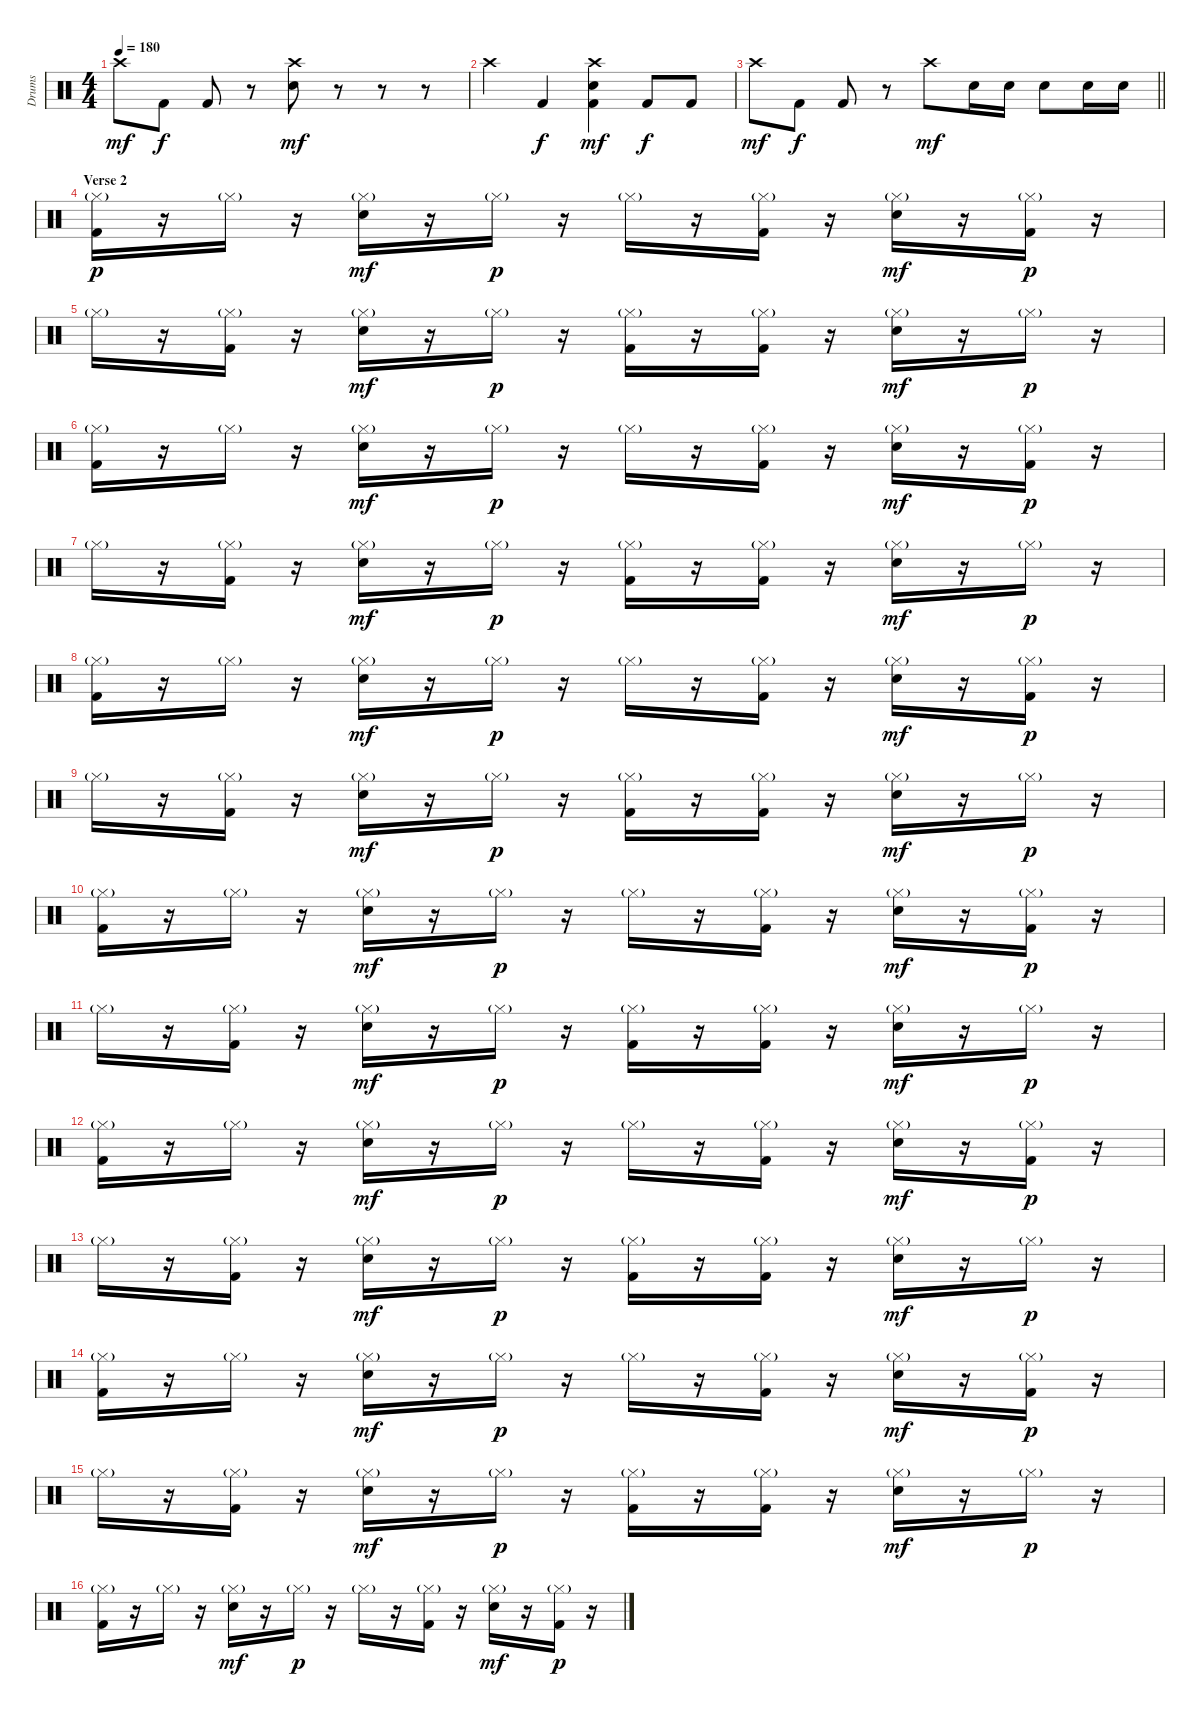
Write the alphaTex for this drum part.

\track ("Drums" "Drums") {instrument percussion}
\staff {score}
\articulation defaults
\ts (4 4)
\tempo 180
\clef neutral
\ks c "Crash high (hit)".8{dy mf} "Kick (hit) 2".8{dy f} "Kick (hit) 2".8
r.8 ("Crash high (hit)" "Electric Snare (hit)").8{dy mf} r.8 r.8 r.8 |
"Crash high (hit)".4 "Kick (hit) 2".4{dy f} ("Crash high (hit)" "Electric Snare (hit)" "Kick (hit) 2").4{dy mf} "Kick (hit) 2".8{dy f} "Kick (hit) 2".8 |
\barLineRight lightlight "Crash high (hit)".8{dy mf} "Kick (hit) 2".8{dy f} "Kick (hit) 2".8
r.8 "Crash high (hit)".8{dy mf} "Electric Snare (hit)".16 "Electric Snare (hit)".16 "Electric Snare (hit)".8 "Electric Snare (hit)".16 "Electric Snare (hit)".16 |
\section ("" "Verse 2")
("Hi-Hat (closed)"{g} "Kick (hit) 2").16{dy p} r.16 "Hi-Hat (closed)"{g}.16 r.16 ("Hi-Hat (closed)"{g} "Electric Snare (hit)").16{dy mf} r.16 "Hi-Hat (closed)"{g}.16{dy p} r.16 "Hi-Hat (closed)"{g}.16 r.16 ("Hi-Hat (closed)"{g} "Kick (hit) 2").16 r.16 ("Hi-Hat (closed)"{g} "Electric Snare (hit)").16{dy mf} r.16 ("Hi-Hat (closed)"{g} "Kick (hit) 2").16{dy p} r.16 |
"Hi-Hat (closed)"{g}.16 r.16 ("Hi-Hat (closed)"{g} "Kick (hit) 2").16 r.16 ("Hi-Hat (closed)"{g} "Electric Snare (hit)").16{dy mf} r.16 "Hi-Hat (closed)"{g}.16{dy p} r.16 ("Hi-Hat (closed)"{g} "Kick (hit) 2").16 r.16 ("Hi-Hat (closed)"{g} "Kick (hit) 2").16 r.16 ("Hi-Hat (closed)"{g} "Electric Snare (hit)").16{dy mf} r.16 "Hi-Hat (closed)"{g}.16{dy p} r.16 |
("Hi-Hat (closed)"{g} "Kick (hit) 2").16 r.16 "Hi-Hat (closed)"{g}.16 r.16 ("Hi-Hat (closed)"{g} "Electric Snare (hit)").16{dy mf} r.16 "Hi-Hat (closed)"{g}.16{dy p} r.16 "Hi-Hat (closed)"{g}.16 r.16 ("Hi-Hat (closed)"{g} "Kick (hit) 2").16 r.16 ("Hi-Hat (closed)"{g} "Electric Snare (hit)").16{dy mf} r.16 ("Hi-Hat (closed)"{g} "Kick (hit) 2").16{dy p} r.16 |
"Hi-Hat (closed)"{g}.16 r.16 ("Hi-Hat (closed)"{g} "Kick (hit) 2").16 r.16 ("Hi-Hat (closed)"{g} "Electric Snare (hit)").16{dy mf} r.16 "Hi-Hat (closed)"{g}.16{dy p} r.16 ("Hi-Hat (closed)"{g} "Kick (hit) 2").16 r.16 ("Hi-Hat (closed)"{g} "Kick (hit) 2").16 r.16 ("Hi-Hat (closed)"{g} "Electric Snare (hit)").16{dy mf} r.16 "Hi-Hat (closed)"{g}.16{dy p} r.16 |
("Hi-Hat (closed)"{g} "Kick (hit) 2").16 r.16 "Hi-Hat (closed)"{g}.16 r.16 ("Hi-Hat (closed)"{g} "Electric Snare (hit)").16{dy mf} r.16 "Hi-Hat (closed)"{g}.16{dy p} r.16 "Hi-Hat (closed)"{g}.16 r.16 ("Hi-Hat (closed)"{g} "Kick (hit) 2").16 r.16 ("Hi-Hat (closed)"{g} "Electric Snare (hit)").16{dy mf} r.16 ("Hi-Hat (closed)"{g} "Kick (hit) 2").16{dy p} r.16 |
"Hi-Hat (closed)"{g}.16 r.16 ("Hi-Hat (closed)"{g} "Kick (hit) 2").16 r.16 ("Hi-Hat (closed)"{g} "Electric Snare (hit)").16{dy mf} r.16 "Hi-Hat (closed)"{g}.16{dy p} r.16 ("Hi-Hat (closed)"{g} "Kick (hit) 2").16 r.16 ("Hi-Hat (closed)"{g} "Kick (hit) 2").16 r.16 ("Hi-Hat (closed)"{g} "Electric Snare (hit)").16{dy mf} r.16 "Hi-Hat (closed)"{g}.16{dy p} r.16 |
("Hi-Hat (closed)"{g} "Kick (hit) 2").16 r.16 "Hi-Hat (closed)"{g}.16 r.16 ("Hi-Hat (closed)"{g} "Electric Snare (hit)").16{dy mf} r.16 "Hi-Hat (closed)"{g}.16{dy p} r.16 "Hi-Hat (closed)"{g}.16 r.16 ("Hi-Hat (closed)"{g} "Kick (hit) 2").16 r.16 ("Hi-Hat (closed)"{g} "Electric Snare (hit)").16{dy mf} r.16 ("Hi-Hat (closed)"{g} "Kick (hit) 2").16{dy p} r.16 |
"Hi-Hat (closed)"{g}.16 r.16 ("Hi-Hat (closed)"{g} "Kick (hit) 2").16 r.16 ("Hi-Hat (closed)"{g} "Electric Snare (hit)").16{dy mf} r.16 "Hi-Hat (closed)"{g}.16{dy p} r.16 ("Hi-Hat (closed)"{g} "Kick (hit) 2").16 r.16 ("Hi-Hat (closed)"{g} "Kick (hit) 2").16 r.16 ("Hi-Hat (closed)"{g} "Electric Snare (hit)").16{dy mf} r.16 "Hi-Hat (closed)"{g}.16{dy p} r.16 |
("Hi-Hat (closed)"{g} "Kick (hit) 2").16 r.16 "Hi-Hat (closed)"{g}.16 r.16 ("Hi-Hat (closed)"{g} "Electric Snare (hit)").16{dy mf} r.16 "Hi-Hat (closed)"{g}.16{dy p} r.16 "Hi-Hat (closed)"{g}.16 r.16 ("Hi-Hat (closed)"{g} "Kick (hit) 2").16 r.16 ("Hi-Hat (closed)"{g} "Electric Snare (hit)").16{dy mf} r.16 ("Hi-Hat (closed)"{g} "Kick (hit) 2").16{dy p} r.16 |
"Hi-Hat (closed)"{g}.16 r.16 ("Hi-Hat (closed)"{g} "Kick (hit) 2").16 r.16 ("Hi-Hat (closed)"{g} "Electric Snare (hit)").16{dy mf} r.16 "Hi-Hat (closed)"{g}.16{dy p} r.16 ("Hi-Hat (closed)"{g} "Kick (hit) 2").16 r.16 ("Hi-Hat (closed)"{g} "Kick (hit) 2").16 r.16 ("Hi-Hat (closed)"{g} "Electric Snare (hit)").16{dy mf} r.16 "Hi-Hat (closed)"{g}.16{dy p} r.16 |
("Hi-Hat (closed)"{g} "Kick (hit) 2").16 r.16 "Hi-Hat (closed)"{g}.16 r.16 ("Hi-Hat (closed)"{g} "Electric Snare (hit)").16{dy mf} r.16 "Hi-Hat (closed)"{g}.16{dy p} r.16 "Hi-Hat (closed)"{g}.16 r.16 ("Hi-Hat (closed)"{g} "Kick (hit) 2").16 r.16 ("Hi-Hat (closed)"{g} "Electric Snare (hit)").16{dy mf} r.16 ("Hi-Hat (closed)"{g} "Kick (hit) 2").16{dy p} r.16 |
"Hi-Hat (closed)"{g}.16 r.16 ("Hi-Hat (closed)"{g} "Kick (hit) 2").16 r.16 ("Hi-Hat (closed)"{g} "Electric Snare (hit)").16{dy mf} r.16 "Hi-Hat (closed)"{g}.16{dy p} r.16 ("Hi-Hat (closed)"{g} "Kick (hit) 2").16 r.16 ("Hi-Hat (closed)"{g} "Kick (hit) 2").16 r.16 ("Hi-Hat (closed)"{g} "Electric Snare (hit)").16{dy mf} r.16 "Hi-Hat (closed)"{g}.16{dy p} r.16 |
("Hi-Hat (closed)"{g} "Kick (hit) 2").16 r.16 "Hi-Hat (closed)"{g}.16 r.16 ("Hi-Hat (closed)"{g} "Electric Snare (hit)").16{dy mf} r.16 "Hi-Hat (closed)"{g}.16{dy p} r.16 "Hi-Hat (closed)"{g}.16 r.16 ("Hi-Hat (closed)"{g} "Kick (hit) 2").16 r.16 ("Hi-Hat (closed)"{g} "Electric Snare (hit)").16{dy mf} r.16 ("Hi-Hat (closed)"{g} "Kick (hit) 2").16{dy p} r.16
